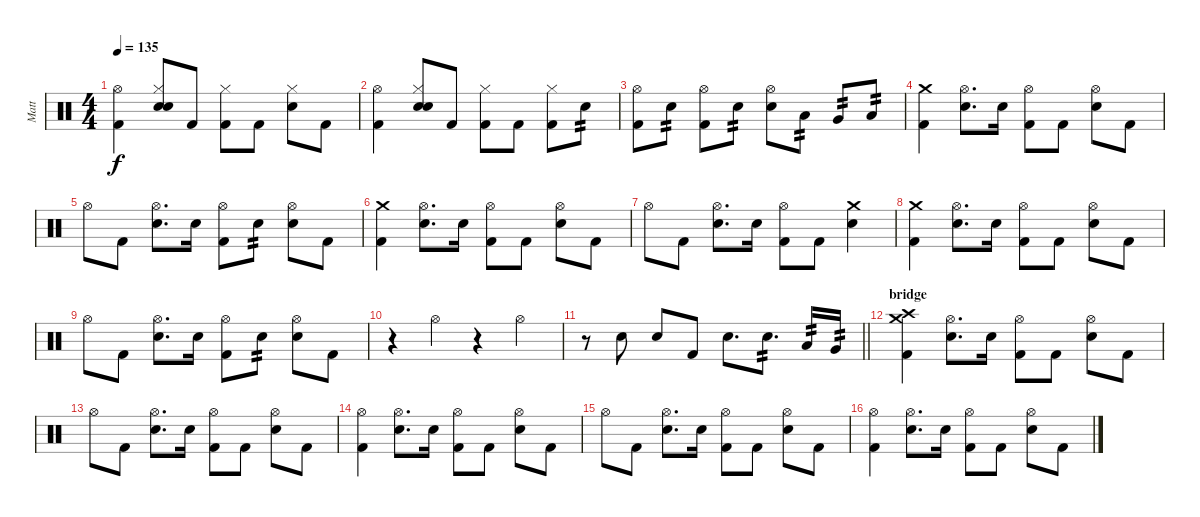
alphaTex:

\track ("Matt" "Matt") {instrument percussion}
\staff {score}
\articulation defaults
\ts (4 4)
\tempo 135
\clef neutral
\ks c
("Hi-Hat (open)" "Kick (hit) 2").4{dy f} ("Hand Clap (hit)" "Hi-Hat (closed)" "Snare (hit) 2").8 "Kick (hit) 2".8 ("Hi-Hat (closed)" "Kick (hit) 2").8 "Kick (hit) 2".8 ("Hi-Hat (closed)" "Snare (hit) 2").8 "Kick (hit) 2".8 |
("Hi-Hat (open)" "Kick (hit) 2").4 ("Hand Clap (hit)" "Hi-Hat (closed)" "Snare (hit) 2").8 "Kick (hit) 2".8 ("Hi-Hat (closed)" "Kick (hit) 2").8 "Kick (hit) 2".8 ("Hi-Hat (closed)" "Kick (hit) 2").8 "Snare (hit) 2".8{tp 2} |
("Hi-Hat (open)" "Kick (hit) 2").8 "Snare (hit) 2".8{tp 2} ("Hi-Hat (open)" "Kick (hit) 2").8 "Snare (hit) 2".8{tp 2} ("Hi-Hat (open)" "Snare (hit) 2").8 "Low Tom (hit)".8{tp 2} "Very Low Tom (hit)".8{tp 2} "Low Floor Tom (hit)".8{tp 2} |
("Crash medium (hit)" "Kick (hit) 2").4 ("Hi-Hat (open)" "Snare (hit) 2").8{d} "Snare (hit) 2".16 ("Hi-Hat (open)" "Kick (hit) 2").8 "Kick (hit) 2".8 ("Hi-Hat (open)" "Snare (hit) 2").8 "Kick (hit) 2".8 |
"Hi-Hat (open)".8 "Kick (hit) 2".8 ("Hi-Hat (open)" "Snare (hit) 2").8{d} "Snare (hit) 2".16 ("Hi-Hat (open)" "Kick (hit) 2").8 "Snare (hit) 2".8{tp 2} ("Hi-Hat (open)" "Snare (hit) 2").8 "Kick (hit) 2".8 |
("Crash medium (hit)" "Kick (hit) 2").4 ("Hi-Hat (open)" "Snare (hit) 2").8{d} "Snare (hit) 2".16 ("Hi-Hat (open)" "Kick (hit) 2").8 "Kick (hit) 2".8 ("Hi-Hat (open)" "Snare (hit) 2").8 "Kick (hit) 2".8 |
"Hi-Hat (open)".8 "Kick (hit) 2".8 ("Hi-Hat (open)" "Snare (hit) 2").8{d} "Snare (hit) 2".16 ("Hi-Hat (open)" "Kick (hit) 2").8 "Kick (hit) 2".8 ("Crash medium (hit)" "Snare (hit) 2").4 |
("Crash medium (hit)" "Kick (hit) 2").4 ("Hi-Hat (open)" "Snare (hit) 2").8{d} "Snare (hit) 2".16 ("Hi-Hat (open)" "Kick (hit) 2").8 "Kick (hit) 2".8 ("Hi-Hat (open)" "Snare (hit) 2").8 "Kick (hit) 2".8 |
"Hi-Hat (open)".8 "Kick (hit) 2".8 ("Hi-Hat (open)" "Snare (hit) 2").8{d} "Snare (hit) 2".16 ("Hi-Hat (open)" "Kick (hit) 2").8 "Snare (hit) 2".8{tp 2} ("Hi-Hat (open)" "Snare (hit) 2").8 "Kick (hit) 2".8 |
r.4 "Hi-Hat (open)".4 r.4 "Hi-Hat (open)".4 |
\barLineRight lightlight
r.8 "Snare (hit) 2".8 "Snare (hit) 2".8 "Kick (hit) 2".8 "Snare (hit) 2".8{d} "Snare (hit) 2".8{d tp 2} "Low Tom (hit)".16{tp 2} "Very Low Tom (hit)".16{tp 2} |
\section ("" "bridge")
("Crash high (hit)" "Crash medium (hit)" "Kick (hit) 2").4 ("Hi-Hat (open)" "Snare (hit) 2").8{d} "Snare (hit) 2".16 ("Hi-Hat (open)" "Kick (hit) 2").8 "Kick (hit) 2".8 ("Hi-Hat (open)" "Snare (hit) 2").8 "Kick (hit) 2".8 |
"Hi-Hat (open)".8 "Kick (hit) 2".8 ("Hi-Hat (open)" "Snare (hit) 2").8{d} "Snare (hit) 2".16 ("Hi-Hat (open)" "Kick (hit) 2").8 "Kick (hit) 2".8 ("Hi-Hat (open)" "Snare (hit) 2").8 "Kick (hit) 2".8 |
("Hi-Hat (open)" "Kick (hit) 2").4 ("Hi-Hat (open)" "Snare (hit) 2").8{d} "Snare (hit) 2".16 ("Hi-Hat (open)" "Kick (hit) 2").8 "Kick (hit) 2".8 ("Hi-Hat (open)" "Snare (hit) 2").8 "Kick (hit) 2".8 |
"Hi-Hat (open)".8 "Kick (hit) 2".8 ("Hi-Hat (open)" "Snare (hit) 2").8{d} "Snare (hit) 2".16 ("Hi-Hat (open)" "Kick (hit) 2").8 "Kick (hit) 2".8 ("Hi-Hat (open)" "Snare (hit) 2").8 "Kick (hit) 2".8 |
("Hi-Hat (open)" "Kick (hit) 2").4 ("Hi-Hat (open)" "Snare (hit) 2").8{d} "Snare (hit) 2".16 ("Hi-Hat (open)" "Kick (hit) 2").8 "Kick (hit) 2".8 ("Hi-Hat (open)" "Snare (hit) 2").8 "Kick (hit) 2".8
